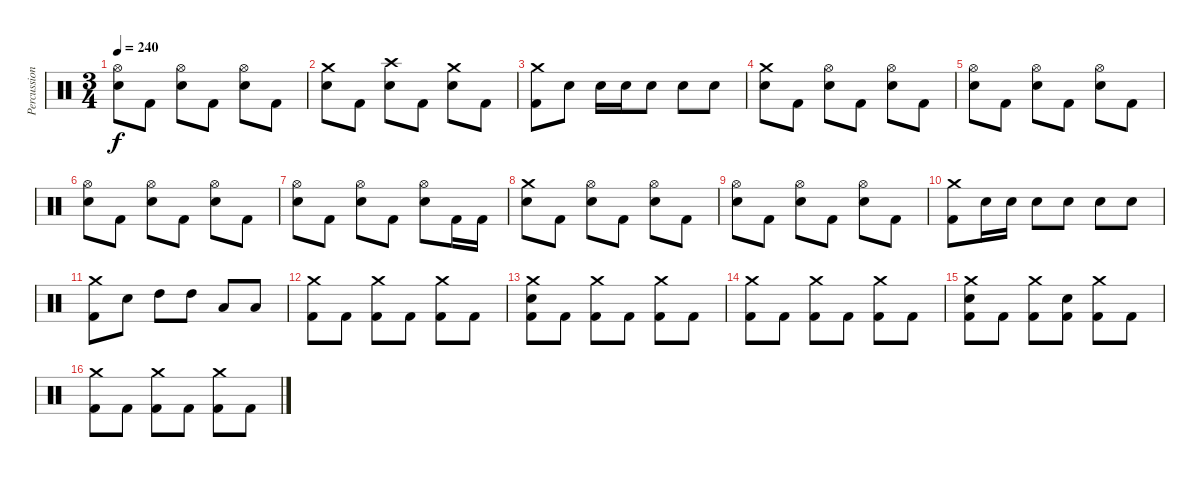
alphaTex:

\track ("Percussion" "Percussion") {instrument percussion}
\staff {score}
\articulation defaults
\ts (3 4)
\tempo 240
\clef neutral
\ks c
("Hi-Hat (open)" "Electric Snare (hit)").8{dy f} "Kick (hit) 2".8 ("Hi-Hat (open)" "Electric Snare (hit)").8 "Kick (hit) 2".8 ("Hi-Hat (open)" "Electric Snare (hit)").8 "Kick (hit) 2".8 |
("Crash medium (hit)" "Electric Snare (hit)").8 "Kick (hit) 2".8 ("Crash high (hit)" "Electric Snare (hit)").8 "Kick (hit) 2".8 ("Crash medium (hit)" "Electric Snare (hit)").8 "Kick (hit) 2".8 |
("Crash medium (hit)" "Kick (hit) 2").8 "Electric Snare (hit)".8 "Electric Snare (hit)".16 "Electric Snare (hit)".16 "Electric Snare (hit)".8 "Electric Snare (hit)".8 "Electric Snare (hit)".8 |
("Crash medium (hit)" "Electric Snare (hit)").8 "Kick (hit) 2".8 ("Hi-Hat (open)" "Electric Snare (hit)").8 "Kick (hit) 2".8 ("Hi-Hat (open)" "Electric Snare (hit)").8 "Kick (hit) 2".8 |
("Hi-Hat (open)" "Electric Snare (hit)").8 "Kick (hit) 2".8 ("Hi-Hat (open)" "Electric Snare (hit)").8 "Kick (hit) 2".8 ("Hi-Hat (open)" "Electric Snare (hit)").8 "Kick (hit) 2".8 |
("Hi-Hat (open)" "Electric Snare (hit)").8 "Kick (hit) 2".8 ("Hi-Hat (open)" "Electric Snare (hit)").8 "Kick (hit) 2".8 ("Hi-Hat (open)" "Electric Snare (hit)").8 "Kick (hit) 2".8 |
("Hi-Hat (open)" "Electric Snare (hit)").8 "Kick (hit) 2".8 ("Hi-Hat (open)" "Electric Snare (hit)").8 "Kick (hit) 2".8 ("Hi-Hat (open)" "Electric Snare (hit)").8 "Kick (hit) 2".16 "Kick (hit) 2".16 |
("Crash medium (hit)" "Electric Snare (hit)").8 "Kick (hit) 2".8 ("Hi-Hat (open)" "Electric Snare (hit)").8 "Kick (hit) 2".8 ("Hi-Hat (open)" "Electric Snare (hit)").8 "Kick (hit) 2".8 |
("Hi-Hat (open)" "Electric Snare (hit)").8 "Kick (hit) 2".8 ("Hi-Hat (open)" "Electric Snare (hit)").8 "Kick (hit) 2".8 ("Hi-Hat (open)" "Electric Snare (hit)").8 "Kick (hit) 2".8 |
("Crash medium (hit)" "Kick (hit) 2").8 "Electric Snare (hit)".16 "Electric Snare (hit)".16 "Electric Snare (hit)".8 "Electric Snare (hit)".8 "Electric Snare (hit)".8 "Electric Snare (hit)".8 |
("Crash medium (hit)" "Kick (hit) 2").8 "Electric Snare (hit)".8 "High Tom (hit)".8 "High Tom (hit)".8 "Low Tom (hit)".8 "Low Tom (hit)".8 |
("Crash medium (hit)" "Kick (hit) 2").8 "Kick (hit) 2".8 ("Crash medium (hit)" "Kick (hit) 2").8 "Kick (hit) 2".8 ("Crash medium (hit)" "Kick (hit) 2").8 "Kick (hit) 2".8 |
("Crash medium (hit)" "Electric Snare (hit)" "Kick (hit) 2").8 "Kick (hit) 2".8 ("Crash medium (hit)" "Kick (hit) 2").8 "Kick (hit) 2".8 ("Crash medium (hit)" "Kick (hit) 2").8 "Kick (hit) 2".8 |
("Crash medium (hit)" "Kick (hit) 2").8 "Kick (hit) 2".8 ("Crash medium (hit)" "Kick (hit) 2").8 "Kick (hit) 2".8 ("Crash medium (hit)" "Kick (hit) 2").8 "Kick (hit) 2".8 |
("Crash medium (hit)" "Electric Snare (hit)" "Kick (hit) 2").8 "Kick (hit) 2".8 ("Crash medium (hit)" "Kick (hit) 2").8 ("Electric Snare (hit)" "Kick (hit) 2").8 ("Crash medium (hit)" "Kick (hit) 2").8 "Kick (hit) 2".8 |
("Crash medium (hit)" "Kick (hit) 2").8 "Kick (hit) 2".8 ("Crash medium (hit)" "Kick (hit) 2").8 "Kick (hit) 2".8 ("Crash medium (hit)" "Kick (hit) 2").8 "Kick (hit) 2".8
